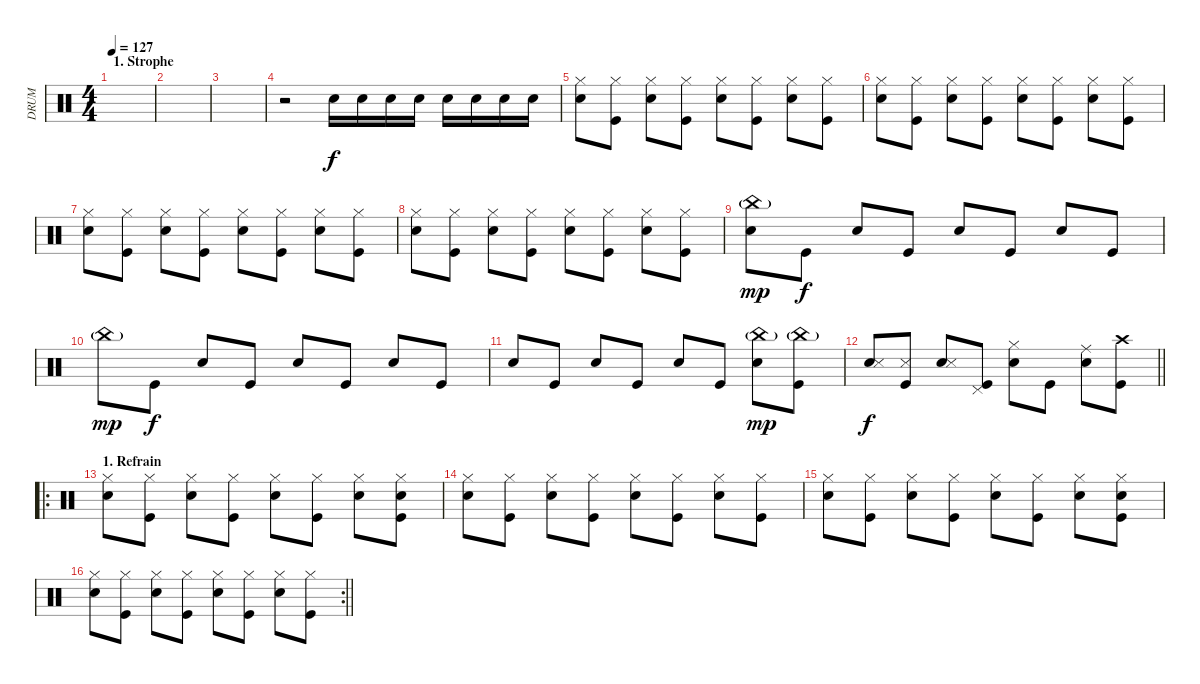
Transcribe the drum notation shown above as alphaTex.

\track ("DRUM" "DRUM") {instrument percussion}
\staff {score}
\articulation defaults
\ts (4 4)
\section ("" "1. Strophe")
\tempo 127
\clef neutral
\ks c
|
|
|
r.2 "Snare (hit) 2".16 "Snare (hit) 2".16 "Snare (hit) 2".16 "Snare (hit) 2".16 "Snare (hit) 2".16 "Snare (hit) 2".16 "Snare (hit) 2".16 "Snare (hit) 2".16 |
("Snare (hit) 2" "Hi-Hat (closed)").8 ("Kick (hit)" "Hi-Hat (closed)").8 ("Snare (hit) 2" "Hi-Hat (closed)").8 ("Kick (hit)" "Hi-Hat (closed)").8 ("Snare (hit) 2" "Hi-Hat (closed)").8 ("Kick (hit)" "Hi-Hat (closed)").8 ("Snare (hit) 2" "Hi-Hat (closed)").8 ("Kick (hit)" "Hi-Hat (closed)").8 |
("Snare (hit) 2" "Hi-Hat (closed)").8 ("Kick (hit)" "Hi-Hat (closed)").8 ("Snare (hit) 2" "Hi-Hat (closed)").8 ("Kick (hit)" "Hi-Hat (closed)").8 ("Snare (hit) 2" "Hi-Hat (closed)").8 ("Kick (hit)" "Hi-Hat (closed)").8 ("Snare (hit) 2" "Hi-Hat (closed)").8 ("Kick (hit)" "Hi-Hat (closed)").8 |
("Snare (hit) 2" "Hi-Hat (closed)").8 ("Kick (hit)" "Hi-Hat (closed)").8 ("Snare (hit) 2" "Hi-Hat (closed)").8 ("Kick (hit)" "Hi-Hat (closed)").8 ("Snare (hit) 2" "Hi-Hat (closed)").8 ("Kick (hit)" "Hi-Hat (closed)").8 ("Snare (hit) 2" "Hi-Hat (closed)").8 ("Kick (hit)" "Hi-Hat (closed)").8 |
("Snare (hit) 2" "Hi-Hat (closed)").8 ("Kick (hit)" "Hi-Hat (closed)").8 ("Snare (hit) 2" "Hi-Hat (closed)").8 ("Kick (hit)" "Hi-Hat (closed)").8 ("Snare (hit) 2" "Hi-Hat (closed)").8 ("Kick (hit)" "Hi-Hat (closed)").8 ("Snare (hit) 2" "Hi-Hat (closed)").8 ("Kick (hit)" "Hi-Hat (closed)").8 |
("Snare (hit) 2" "China (hit)"{g}).8{dy mp} "Kick (hit)".8{dy f} "Snare (hit) 2".8 "Kick (hit)".8 "Snare (hit) 2".8 "Kick (hit)".8 "Snare (hit) 2".8 "Kick (hit)".8 |
"China (hit)"{g}.8{dy mp} "Kick (hit)".8{dy f} "Snare (hit) 2".8 "Kick (hit)".8 "Snare (hit) 2".8 "Kick (hit)".8 "Snare (hit) 2".8 "Kick (hit)".8 |
"Snare (hit) 2".8 "Kick (hit)".8 "Snare (hit) 2".8 "Kick (hit)".8 "Snare (hit) 2".8 "Kick (hit)".8 ("Snare (hit) 2" "China (hit)"{g}).8{dy mp} ("Kick (hit)" "China (hit)"{g}).8 |
\barLineRight lightlight
("Snare (hit) 2" "Snare (side stick) 3").8{dy f} ("Kick (hit)" "Snare (side stick) 3").8 ("Snare (hit) 2" "Snare (side stick) 3").8 ("Kick (hit)" "Pedal Hi-Hat (hit)").8 ("Snare (hit) 2" "Hi-Hat (closed)").8 "Kick (hit)".8 ("Snare (hit) 2" "Ride (middle)").8 ("Kick (hit)" "Crash high (hit)").8 |
\ro
\section ("" "1. Refrain")
("Snare (hit) 2" "Hi-Hat (closed)").8 ("Kick (hit)" "Hi-Hat (closed)").8 ("Snare (hit) 2" "Hi-Hat (closed)").8 ("Kick (hit)" "Hi-Hat (closed)").8 ("Snare (hit) 2" "Hi-Hat (closed)").8 ("Kick (hit)" "Hi-Hat (closed)").8 ("Snare (hit) 2" "Hi-Hat (closed)").8 ("Kick (hit)" "Hi-Hat (closed)" "Snare (hit) 2").8 |
("Snare (hit) 2" "Hi-Hat (closed)").8 ("Kick (hit)" "Hi-Hat (closed)").8 ("Snare (hit) 2" "Hi-Hat (closed)").8 ("Kick (hit)" "Hi-Hat (closed)").8 ("Snare (hit) 2" "Hi-Hat (closed)").8 ("Kick (hit)" "Hi-Hat (closed)").8 ("Snare (hit) 2" "Hi-Hat (closed)").8 ("Kick (hit)" "Hi-Hat (closed)").8 |
("Snare (hit) 2" "Hi-Hat (closed)").8 ("Kick (hit)" "Hi-Hat (closed)").8 ("Snare (hit) 2" "Hi-Hat (closed)").8 ("Kick (hit)" "Hi-Hat (closed)").8 ("Snare (hit) 2" "Hi-Hat (closed)").8 ("Kick (hit)" "Hi-Hat (closed)").8 ("Snare (hit) 2" "Hi-Hat (closed)").8 ("Kick (hit)" "Hi-Hat (closed)" "Snare (hit) 2").8 |
\rc 2
\barLineRight lightlight
("Snare (hit) 2" "Hi-Hat (closed)").8 ("Kick (hit)" "Hi-Hat (closed)").8 ("Snare (hit) 2" "Hi-Hat (closed)").8 ("Kick (hit)" "Hi-Hat (closed)").8 ("Snare (hit) 2" "Hi-Hat (closed)").8 ("Kick (hit)" "Hi-Hat (closed)").8 ("Snare (hit) 2" "Hi-Hat (closed)").8 ("Kick (hit)" "Hi-Hat (closed)").8
